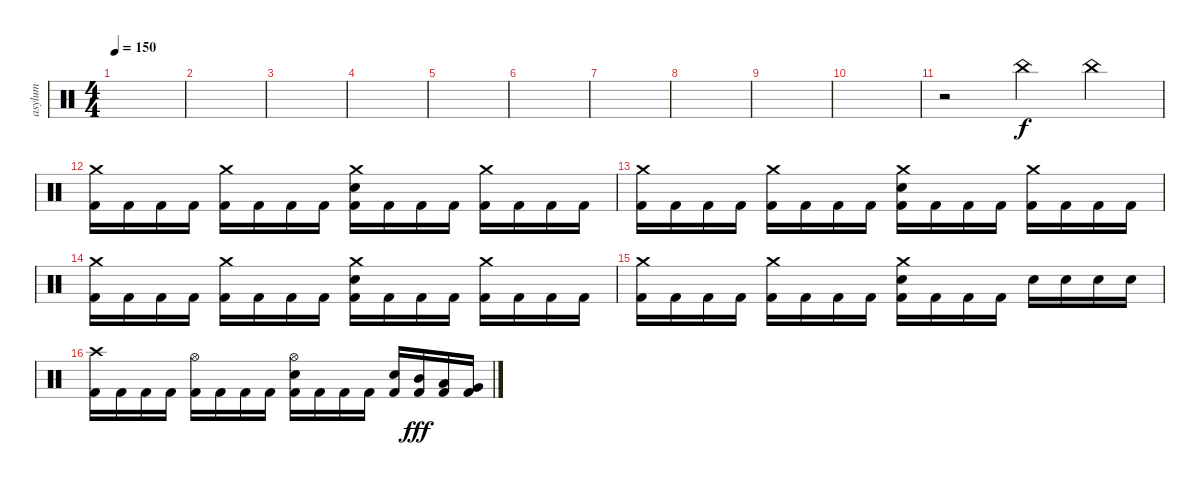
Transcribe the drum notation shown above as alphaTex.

\track ("asylum" "asylum") {instrument percussion}
\staff {score}
\articulation defaults
\ts (4 4)
\tempo 150
\clef neutral
\ks c
|
|
|
|
|
|
|
|
|
|
r.2 "China (hit)".4 "China (hit)".4 |
("Crash medium (hit)" "Kick (hit) 2").16 "Kick (hit) 2".16 "Kick (hit) 2".16 "Kick (hit) 2".16 ("Crash medium (hit)" "Kick (hit) 2").16 "Kick (hit) 2".16 "Kick (hit) 2".16 "Kick (hit) 2".16 ("Crash medium (hit)" "Electric Snare (hit)" "Kick (hit) 2").16 "Kick (hit) 2".16 "Kick (hit) 2".16 "Kick (hit) 2".16 ("Crash medium (hit)" "Kick (hit) 2").16 "Kick (hit) 2".16 "Kick (hit) 2".16 "Kick (hit) 2".16 |
("Crash medium (hit)" "Kick (hit) 2").16 "Kick (hit) 2".16 "Kick (hit) 2".16 "Kick (hit) 2".16 ("Crash medium (hit)" "Kick (hit) 2").16 "Kick (hit) 2".16 "Kick (hit) 2".16 "Kick (hit) 2".16 ("Crash medium (hit)" "Electric Snare (hit)" "Kick (hit) 2").16 "Kick (hit) 2".16 "Kick (hit) 2".16 "Kick (hit) 2".16 ("Crash medium (hit)" "Kick (hit) 2").16 "Kick (hit) 2".16 "Kick (hit) 2".16 "Kick (hit) 2".16 |
("Crash medium (hit)" "Kick (hit) 2").16 "Kick (hit) 2".16 "Kick (hit) 2".16 "Kick (hit) 2".16 ("Crash medium (hit)" "Kick (hit) 2").16 "Kick (hit) 2".16 "Kick (hit) 2".16 "Kick (hit) 2".16 ("Crash medium (hit)" "Electric Snare (hit)" "Kick (hit) 2").16 "Kick (hit) 2".16 "Kick (hit) 2".16 "Kick (hit) 2".16 ("Crash medium (hit)" "Kick (hit) 2").16 "Kick (hit) 2".16 "Kick (hit) 2".16 "Kick (hit) 2".16 |
("Crash medium (hit)" "Kick (hit) 2").16 "Kick (hit) 2".16 "Kick (hit) 2".16 "Kick (hit) 2".16 ("Crash medium (hit)" "Kick (hit) 2").16 "Kick (hit) 2".16 "Kick (hit) 2".16 "Kick (hit) 2".16 ("Crash medium (hit)" "Electric Snare (hit)" "Kick (hit) 2").16 "Kick (hit) 2".16 "Kick (hit) 2".16 "Kick (hit) 2".16 "Electric Snare (hit)".16 "Electric Snare (hit)".16 "Electric Snare (hit)".16 "Electric Snare (hit)".16 |
("Crash high (hit)" "Kick (hit) 2").16 "Kick (hit) 2".16 "Kick (hit) 2".16 "Kick (hit) 2".16 ("Hi-Hat (open)" "Kick (hit) 2").16 "Kick (hit) 2".16 "Kick (hit) 2".16 "Kick (hit) 2".16 ("Hi-Hat (open)" "Electric Snare (hit)" "Kick (hit) 2").16 "Kick (hit) 2".16 "Kick (hit) 2".16 "Kick (hit) 2".16 ("Electric Snare (hit)" "Kick (hit) 2").16 ("Mid Tom (hit)" "Kick (hit) 2").16{dy fff} ("Low Tom (hit)" "Kick (hit) 2").16 ("Very Low Tom (hit)" "Kick (hit) 2").16
